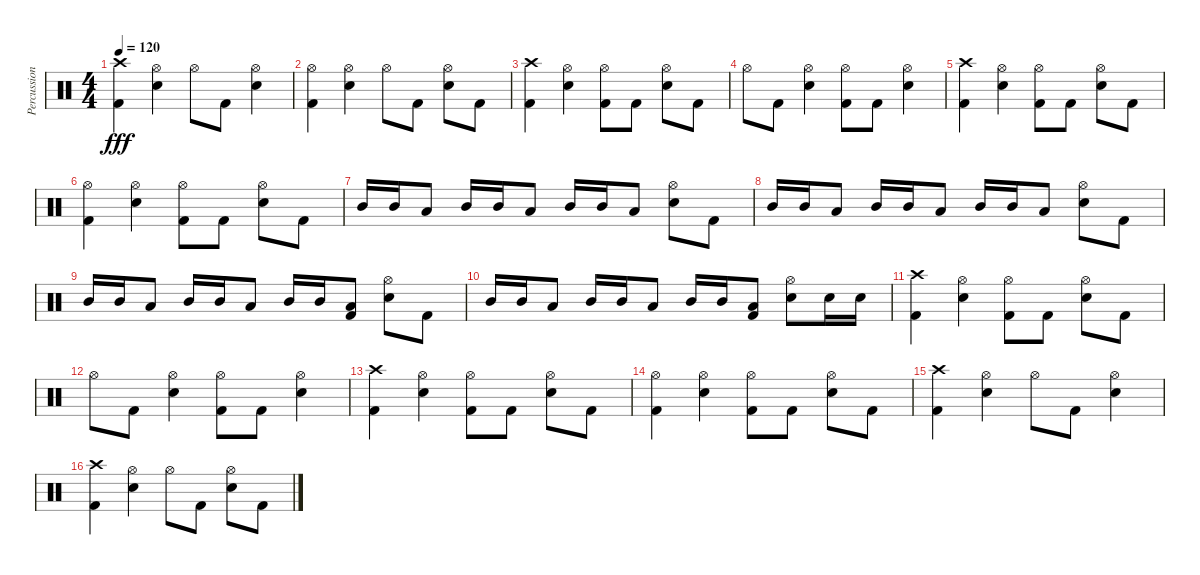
\track ("Percussion" "Percussion") {instrument percussion}
\staff {score}
\articulation defaults
\ts (4 4)
\tempo 120
\clef neutral
\ks c
("Crash high (hit)" "Kick (hit) 2").4{dy fff} ("Hi-Hat (open)" "Snare (hit) 2").4 "Hi-Hat (open)".8 "Kick (hit) 2".8 ("Hi-Hat (open)" "Snare (hit) 2").4 |
("Hi-Hat (open)" "Kick (hit) 2").4 ("Hi-Hat (open)" "Snare (hit) 2").4 "Hi-Hat (open)".8 "Kick (hit) 2".8 ("Hi-Hat (open)" "Snare (hit) 2").8 "Kick (hit) 2".8 |
("Crash high (hit)" "Kick (hit) 2").4 ("Hi-Hat (open)" "Snare (hit) 2").4 ("Hi-Hat (open)" "Kick (hit) 2").8 "Kick (hit) 2".8 ("Hi-Hat (open)" "Snare (hit) 2").8 "Kick (hit) 2".8 |
"Hi-Hat (open)".8 "Kick (hit) 2".8 ("Hi-Hat (open)" "Snare (hit) 2").4 ("Hi-Hat (open)" "Kick (hit) 2").8 "Kick (hit) 2".8 ("Hi-Hat (open)" "Snare (hit) 2").4 |
("Crash high (hit)" "Kick (hit) 2").4 ("Hi-Hat (open)" "Snare (hit) 2").4 ("Hi-Hat (open)" "Kick (hit) 2").8 "Kick (hit) 2".8 ("Hi-Hat (open)" "Snare (hit) 2").8 "Kick (hit) 2".8 |
("Hi-Hat (open)" "Kick (hit) 2").4 ("Hi-Hat (open)" "Snare (hit) 2").4 ("Hi-Hat (open)" "Kick (hit) 2").8 "Kick (hit) 2".8 ("Hi-Hat (open)" "Snare (hit) 2").8 "Kick (hit) 2".8 |
"Mid Tom (hit)".16 "Mid Tom (hit)".16 "Low Tom (hit)".8 "Mid Tom (hit)".16 "Mid Tom (hit)".16 "Low Tom (hit)".8 "Mid Tom (hit)".16 "Mid Tom (hit)".16 "Low Tom (hit)".8 ("Hi-Hat (open)" "Snare (hit) 2").8 "Kick (hit) 2".8 |
"Mid Tom (hit)".16 "Mid Tom (hit)".16 "Low Tom (hit)".8 "Mid Tom (hit)".16 "Mid Tom (hit)".16 "Low Tom (hit)".8 "Mid Tom (hit)".16 "Mid Tom (hit)".16 "Low Tom (hit)".8 ("Hi-Hat (open)" "Snare (hit) 2").8 "Kick (hit) 2".8 |
"Mid Tom (hit)".16 "Mid Tom (hit)".16 "Low Tom (hit)".8 "Mid Tom (hit)".16 "Mid Tom (hit)".16 "Low Tom (hit)".8 "Mid Tom (hit)".16 "Mid Tom (hit)".16 ("Low Tom (hit)" "Kick (hit) 2").8 ("Hi-Hat (open)" "Snare (hit) 2").8 "Kick (hit) 2".8 |
"Mid Tom (hit)".16 "Mid Tom (hit)".16 "Low Tom (hit)".8 "Mid Tom (hit)".16 "Mid Tom (hit)".16 "Low Tom (hit)".8 "Mid Tom (hit)".16 "Mid Tom (hit)".16 ("Low Tom (hit)" "Kick (hit) 2").8 ("Hi-Hat (open)" "Snare (hit) 2").8 "Snare (hit) 2".16 "Snare (hit) 2".16 |
("Crash high (hit)" "Kick (hit) 2").4 ("Hi-Hat (open)" "Snare (hit) 2").4 ("Hi-Hat (open)" "Kick (hit) 2").8 "Kick (hit) 2".8 ("Hi-Hat (open)" "Snare (hit) 2").8 "Kick (hit) 2".8 |
"Hi-Hat (open)".8 "Kick (hit) 2".8 ("Hi-Hat (open)" "Snare (hit) 2").4 ("Hi-Hat (open)" "Kick (hit) 2").8 "Kick (hit) 2".8 ("Hi-Hat (open)" "Snare (hit) 2").4 |
("Crash high (hit)" "Kick (hit) 2").4 ("Hi-Hat (open)" "Snare (hit) 2").4 ("Hi-Hat (open)" "Kick (hit) 2").8 "Kick (hit) 2".8 ("Hi-Hat (open)" "Snare (hit) 2").8 "Kick (hit) 2".8 |
("Hi-Hat (open)" "Kick (hit) 2").4 ("Hi-Hat (open)" "Snare (hit) 2").4 ("Hi-Hat (open)" "Kick (hit) 2").8 "Kick (hit) 2".8 ("Hi-Hat (open)" "Snare (hit) 2").8 "Kick (hit) 2".8 |
("Crash high (hit)" "Kick (hit) 2").4 ("Hi-Hat (open)" "Snare (hit) 2").4 "Hi-Hat (open)".8 "Kick (hit) 2".8 ("Hi-Hat (open)" "Snare (hit) 2").4 |
("Crash high (hit)" "Kick (hit) 2").4 ("Hi-Hat (open)" "Snare (hit) 2").4 "Hi-Hat (open)".8 "Kick (hit) 2".8 ("Hi-Hat (open)" "Snare (hit) 2").8 "Kick (hit) 2".8
